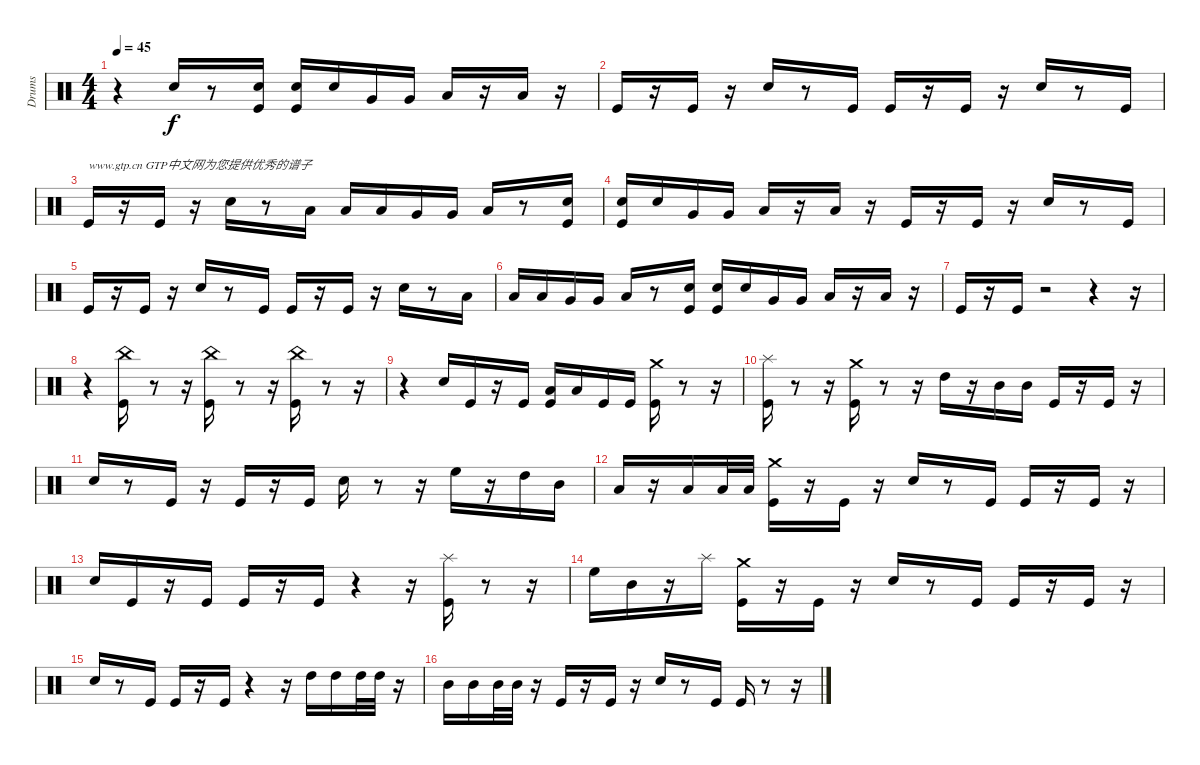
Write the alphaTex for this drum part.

\track ("Drums" "Drums") {instrument percussion}
\staff {score}
\articulation defaults
\ts (4 4)
\tempo 45
\clef neutral
\ks c
r.4{dy f} "Electric Snare (hit)".16 r.8 ("Electric Snare (hit)" "Kick (hit)").16 ("Electric Snare (hit)" "Kick (hit)").16 "Electric Snare (hit)".16 "Very Low Tom (hit)".16 "Very Low Tom (hit)".16 "Low Floor Tom (hit)".16 r.16 "Low Floor Tom (hit)".16 r.16 |
"Kick (hit)".16 r.16 "Kick (hit)".16 r.16 "Electric Snare (hit)".16 r.8 "Kick (hit)".16 "Kick (hit)".16 r.16 "Kick (hit)".16 r.16 "Electric Snare (hit)".16 r.8 "Kick (hit)".16 |
"Kick (hit)".16{txt "www.gtp.cn GTP中文网为您提供优秀的谱子"} r.16 "Kick (hit)".16 r.16 "Electric Snare (hit)".16 r.8 "Low Floor Tom (hit)".16 "Low Floor Tom (hit)".16 "Low Floor Tom (hit)".16 "Very Low Tom (hit)".16 "Very Low Tom (hit)".16 "Low Tom (hit)".16 r.8 ("Electric Snare (hit)" "Kick (hit)").16 |
("Electric Snare (hit)" "Kick (hit)").16 "Electric Snare (hit)".16 "Very Low Tom (hit)".16 "Very Low Tom (hit)".16 "Low Floor Tom (hit)".16 r.16 "Low Floor Tom (hit)".16 r.16 "Kick (hit)".16 r.16 "Kick (hit)".16 r.16 "Electric Snare (hit)".16 r.8 "Kick (hit)".16 |
"Kick (hit)".16 r.16 "Kick (hit)".16 r.16 "Electric Snare (hit)".16 r.8 "Kick (hit)".16 "Kick (hit)".16 r.16 "Kick (hit)".16 r.16 "Electric Snare (hit)".16 r.8 "Low Floor Tom (hit)".16 |
"Low Floor Tom (hit)".16 "Low Floor Tom (hit)".16 "Very Low Tom (hit)".16 "Very Low Tom (hit)".16 "Low Tom (hit)".16 r.8 ("Electric Snare (hit)" "Kick (hit)").16 ("Electric Snare (hit)" "Kick (hit)").16 "Electric Snare (hit)".16 "Very Low Tom (hit)".16 "Very Low Tom (hit)".16 "Low Floor Tom (hit)".16 r.16 "Low Floor Tom (hit)".16 r.16 |
"Kick (hit)".16 r.16 "Kick (hit)".16 r.2 r.4 r.16 |
r.4 ("China (hit)" "Kick (hit)").16 r.8 r.16 ("Kick (hit)" "China (hit)").16 r.8 r.16 ("China (hit)" "Kick (hit)").16 r.8 r.16 |
r.4 "Electric Snare (hit)".16 "Kick (hit)".16 r.16 "Kick (hit)".16 ("Low Tom (hit)" "Kick (hit)").16 "Low Tom (hit)".16 "Kick (hit)".16 "Kick (hit)".16 ("Crash medium (hit)" "Kick (hit)").16 r.8 r.16 |
("Splash (hit)" "Kick (hit)").16 r.8 r.16 ("Crash medium (hit)" "Kick (hit)").16 r.8 r.16 "High Tom (hit)".16 r.16 "Mid Tom (hit)".16 "Mid Tom (hit)".16 "Kick (hit)".16 r.16 "Kick (hit)".16 r.16 |
"Electric Snare (hit)".16 r.8 "Kick (hit)".16 r.16 "Kick (hit)".16 r.16 "Kick (hit)".16 "Electric Snare (hit)".16 r.8 r.16 "High Floor Tom (hit)".16 r.16 "High Tom (hit)".16 "Mid Tom (hit)".16 |
"Low Tom (hit)".16 r.16 "Low Tom (hit)".16 "Low Tom (hit)".32 "Low Tom (hit)".32 ("Crash medium (hit)" "Kick (hit)").16 r.16 "Kick (hit)".16 r.16 "Electric Snare (hit)".16 r.8 "Kick (hit)".16 "Kick (hit)".16 r.16 "Kick (hit)".16 r.16 |
"Electric Snare (hit)".16 "Kick (hit)".16 r.16 "Kick (hit)".16 "Kick (hit)".16 r.16 "Kick (hit)".16 r.4 r.16 ("Splash (hit)" "Kick (hit)").16 r.8 r.16 |
"High Floor Tom (hit)".16 "Mid Tom (hit)".16 r.16 "Splash (hit)".16 ("Kick (hit)" "Crash medium (hit)").16 r.16 "Kick (hit)".16 r.16 "Electric Snare (hit)".16 r.8 "Kick (hit)".16 "Kick (hit)".16 r.16 "Kick (hit)".16 r.16 |
"Electric Snare (hit)".16 r.8 "Kick (hit)".16 "Kick (hit)".16 r.16 "Kick (hit)".16 r.4 r.16 "High Tom (hit)".16 "High Tom (hit)".16 "High Tom (hit)".32 "High Tom (hit)".32 r.16 |
"Mid Tom (hit)".16 "Mid Tom (hit)".16 "Mid Tom (hit)".32 "Mid Tom (hit)".32 r.16 "Kick (hit)".16 r.16 "Kick (hit)".16 r.16 "Electric Snare (hit)".16 r.8 "Kick (hit)".16 "Kick (hit)".16 r.8 r.16
